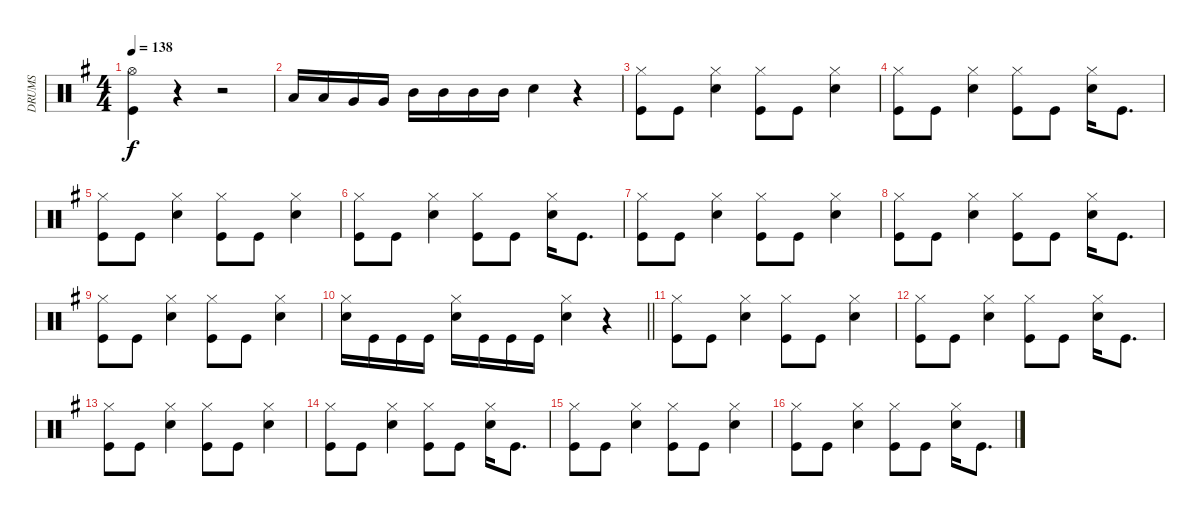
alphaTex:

\track ("DRUMS" "DRUMS") {instrument percussion}
\staff {score}
\articulation defaults
\ts (4 4)
\tempo 138
\clef neutral
\ks eminor
("Hi-Hat (open)" "Kick (hit)").4{dy f} r.4 r.2 |
"Low Tom (hit)".16 "Low Tom (hit)".16 "Very Low Tom (hit)".16 "Very Low Tom (hit)".16 "Mid Tom (hit)".16 "Mid Tom (hit)".16 "Mid Tom (hit)".16 "Mid Tom (hit)".16 "Snare (hit) 2".4 r.4 |
("Hi-Hat (closed)" "Kick (hit)").8 "Kick (hit)".8 ("Hi-Hat (closed)" "Snare (hit) 2").4 ("Hi-Hat (closed)" "Kick (hit)").8 "Kick (hit)".8 ("Hi-Hat (closed)" "Snare (hit) 2").4 |
("Hi-Hat (closed)" "Kick (hit)").8 "Kick (hit)".8 ("Hi-Hat (closed)" "Snare (hit) 2").4 ("Hi-Hat (closed)" "Kick (hit)").8 "Kick (hit)".8 ("Hi-Hat (closed)" "Snare (hit) 2").16 "Kick (hit)".8{d} |
("Hi-Hat (closed)" "Kick (hit)").8 "Kick (hit)".8 ("Hi-Hat (closed)" "Snare (hit) 2").4 ("Hi-Hat (closed)" "Kick (hit)").8 "Kick (hit)".8 ("Hi-Hat (closed)" "Snare (hit) 2").4 |
("Hi-Hat (closed)" "Kick (hit)").8 "Kick (hit)".8 ("Hi-Hat (closed)" "Snare (hit) 2").4 ("Hi-Hat (closed)" "Kick (hit)").8 "Kick (hit)".8 ("Hi-Hat (closed)" "Snare (hit) 2").16 "Kick (hit)".8{d} |
("Hi-Hat (closed)" "Kick (hit)").8 "Kick (hit)".8 ("Hi-Hat (closed)" "Snare (hit) 2").4 ("Hi-Hat (closed)" "Kick (hit)").8 "Kick (hit)".8 ("Hi-Hat (closed)" "Snare (hit) 2").4 |
("Hi-Hat (closed)" "Kick (hit)").8 "Kick (hit)".8 ("Hi-Hat (closed)" "Snare (hit) 2").4 ("Hi-Hat (closed)" "Kick (hit)").8 "Kick (hit)".8 ("Hi-Hat (closed)" "Snare (hit) 2").16 "Kick (hit)".8{d} |
("Hi-Hat (closed)" "Kick (hit)").8 "Kick (hit)".8 ("Hi-Hat (closed)" "Snare (hit) 2").4 ("Hi-Hat (closed)" "Kick (hit)").8 "Kick (hit)".8 ("Hi-Hat (closed)" "Snare (hit) 2").4 |
\barLineRight lightlight
("Hi-Hat (closed)" "Snare (hit) 2").16 "Kick (hit)".16 "Kick (hit)".16 "Kick (hit)".16 ("Hi-Hat (closed)" "Snare (hit) 2").16 "Kick (hit)".16 "Kick (hit)".16 "Kick (hit)".16 ("Hi-Hat (closed)" "Snare (hit) 2").4 r.4 |
("Hi-Hat (closed)" "Kick (hit)").8 "Kick (hit)".8 ("Hi-Hat (closed)" "Snare (hit) 2").4 ("Hi-Hat (closed)" "Kick (hit)").8 "Kick (hit)".8 ("Hi-Hat (closed)" "Snare (hit) 2").4 |
("Hi-Hat (closed)" "Kick (hit)").8 "Kick (hit)".8 ("Hi-Hat (closed)" "Snare (hit) 2").4 ("Hi-Hat (closed)" "Kick (hit)").8 "Kick (hit)".8 ("Hi-Hat (closed)" "Snare (hit) 2").16 "Kick (hit)".8{d} |
("Hi-Hat (closed)" "Kick (hit)").8 "Kick (hit)".8 ("Hi-Hat (closed)" "Snare (hit) 2").4 ("Hi-Hat (closed)" "Kick (hit)").8 "Kick (hit)".8 ("Hi-Hat (closed)" "Snare (hit) 2").4 |
("Hi-Hat (closed)" "Kick (hit)").8 "Kick (hit)".8 ("Hi-Hat (closed)" "Snare (hit) 2").4 ("Hi-Hat (closed)" "Kick (hit)").8 "Kick (hit)".8 ("Hi-Hat (closed)" "Snare (hit) 2").16 "Kick (hit)".8{d} |
("Hi-Hat (closed)" "Kick (hit)").8 "Kick (hit)".8 ("Hi-Hat (closed)" "Snare (hit) 2").4 ("Hi-Hat (closed)" "Kick (hit)").8 "Kick (hit)".8 ("Hi-Hat (closed)" "Snare (hit) 2").4 |
("Hi-Hat (closed)" "Kick (hit)").8 "Kick (hit)".8 ("Hi-Hat (closed)" "Snare (hit) 2").4 ("Hi-Hat (closed)" "Kick (hit)").8 "Kick (hit)".8 ("Hi-Hat (closed)" "Snare (hit) 2").16 "Kick (hit)".8{d}
